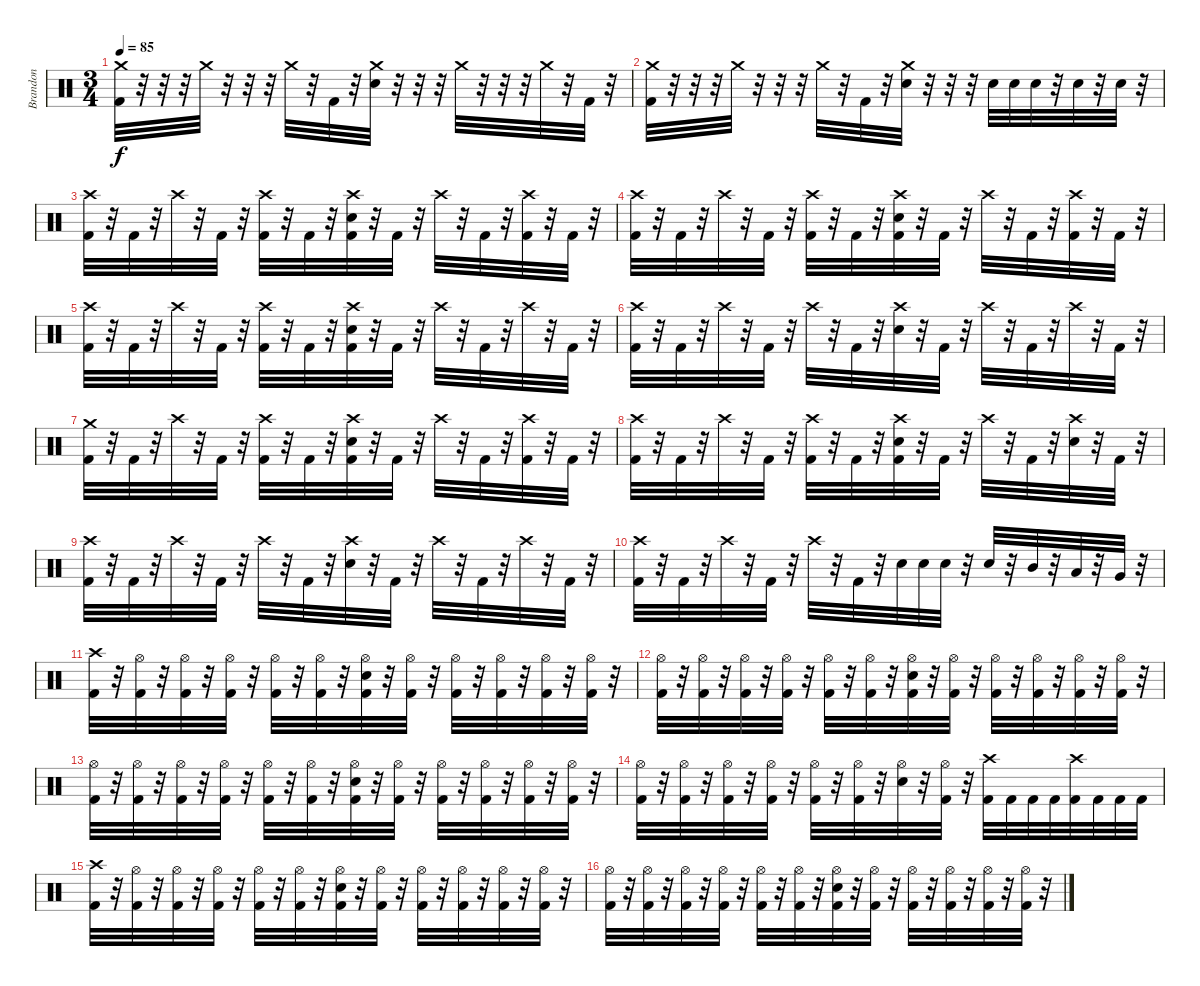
\track ("Brandon" "Brandon") {instrument percussion}
\staff {score}
\articulation defaults
\ts (3 4)
\tempo 85
\clef neutral
\ks c
("Crash medium (hit)" "Kick (hit) 2").32{dy f} r.32 r.32 r.32 "Crash medium (hit)".32 r.32 r.32 r.32 "Crash medium (hit)".32 r.32 "Kick (hit) 2".32 r.32 ("Crash medium (hit)" "Electric Snare (hit)").32 r.32 r.32 r.32 "Crash medium (hit)".32 r.32 r.32 r.32 "Crash medium (hit)".32 r.32 "Kick (hit) 2".32 r.32 |
("Crash medium (hit)" "Kick (hit) 2").32 r.32 r.32 r.32 "Crash medium (hit)".32 r.32 r.32 r.32 "Crash medium (hit)".32 r.32 "Kick (hit) 2".32 r.32 ("Crash medium (hit)" "Electric Snare (hit)").32 r.32 r.32 r.32 "Electric Snare (hit)".32 "Electric Snare (hit)".32 "Electric Snare (hit)".32 r.32 "Electric Snare (hit)".32 r.32 "Electric Snare (hit)".32 r.32 |
("Crash high (hit)" "Kick (hit) 2").32 r.32 "Kick (hit) 2".32 r.32 "Crash high (hit)".32 r.32 "Kick (hit) 2".32 r.32 ("Crash high (hit)" "Kick (hit) 2").32 r.32 "Kick (hit) 2".32 r.32 ("Crash high (hit)" "Electric Snare (hit)" "Kick (hit) 2").32 r.32 "Kick (hit) 2".32 r.32 "Crash high (hit)".32 r.32 "Kick (hit) 2".32 r.32 ("Crash high (hit)" "Kick (hit) 2").32 r.32 "Kick (hit) 2".32 r.32 |
("Crash high (hit)" "Kick (hit) 2").32 r.32 "Kick (hit) 2".32 r.32 "Crash high (hit)".32 r.32 "Kick (hit) 2".32 r.32 ("Crash high (hit)" "Kick (hit) 2").32 r.32 "Kick (hit) 2".32 r.32 ("Crash high (hit)" "Electric Snare (hit)" "Kick (hit) 2").32 r.32 "Kick (hit) 2".32 r.32 "Crash high (hit)".32 r.32 "Kick (hit) 2".32 r.32 ("Crash high (hit)" "Kick (hit) 2").32 r.32 "Kick (hit) 2".32 r.32 |
("Crash high (hit)" "Kick (hit) 2").32 r.32 "Kick (hit) 2".32 r.32 "Crash high (hit)".32 r.32 "Kick (hit) 2".32 r.32 ("Crash high (hit)" "Kick (hit) 2").32 r.32 "Kick (hit) 2".32 r.32 ("Crash high (hit)" "Electric Snare (hit)" "Kick (hit) 2").32 r.32 "Kick (hit) 2".32 r.32 "Crash high (hit)".32 r.32 "Kick (hit) 2".32 r.32 "Crash high (hit)".32 r.32 "Kick (hit) 2".32 r.32 |
("Crash high (hit)" "Kick (hit) 2").32 r.32 "Kick (hit) 2".32 r.32 "Crash high (hit)".32 r.32 "Kick (hit) 2".32 r.32 "Crash high (hit)".32 r.32 "Kick (hit) 2".32 r.32 ("Crash high (hit)" "Electric Snare (hit)").32 r.32 "Kick (hit) 2".32 r.32 "Crash high (hit)".32 r.32 "Kick (hit) 2".32 r.32 "Crash high (hit)".32 r.32 "Kick (hit) 2".32 r.32 |
("Crash medium (hit)" "Kick (hit) 2").32 r.32 "Kick (hit) 2".32 r.32 "Crash high (hit)".32 r.32 "Kick (hit) 2".32 r.32 ("Crash high (hit)" "Kick (hit) 2").32 r.32 "Kick (hit) 2".32 r.32 ("Crash high (hit)" "Electric Snare (hit)" "Kick (hit) 2").32 r.32 "Kick (hit) 2".32 r.32 "Crash high (hit)".32 r.32 "Kick (hit) 2".32 r.32 ("Crash high (hit)" "Kick (hit) 2").32 r.32 "Kick (hit) 2".32 r.32 |
("Crash high (hit)" "Kick (hit) 2").32 r.32 "Kick (hit) 2".32 r.32 "Crash high (hit)".32 r.32 "Kick (hit) 2".32 r.32 ("Crash high (hit)" "Kick (hit) 2").32 r.32 "Kick (hit) 2".32 r.32 ("Crash high (hit)" "Electric Snare (hit)" "Kick (hit) 2").32 r.32 "Kick (hit) 2".32 r.32 "Crash high (hit)".32 r.32 "Kick (hit) 2".32 r.32 ("Crash high (hit)" "Electric Snare (hit)").32 r.32 "Kick (hit) 2".32 r.32 |
("Crash high (hit)" "Kick (hit) 2").32 r.32 "Kick (hit) 2".32 r.32 "Crash high (hit)".32 r.32 "Kick (hit) 2".32 r.32 "Crash high (hit)".32 r.32 "Kick (hit) 2".32 r.32 ("Crash high (hit)" "Electric Snare (hit)").32 r.32 "Kick (hit) 2".32 r.32 "Crash high (hit)".32 r.32 "Kick (hit) 2".32 r.32 "Crash high (hit)".32 r.32 "Kick (hit) 2".32 r.32 |
("Crash high (hit)" "Kick (hit) 2").32 r.32 "Kick (hit) 2".32 r.32 "Crash high (hit)".32 r.32 "Kick (hit) 2".32 r.32 "Crash high (hit)".32 r.32 "Kick (hit) 2".32 r.32 "Electric Snare (hit)".32 "Electric Snare (hit)".32 "Electric Snare (hit)".32 r.32 "Electric Snare (hit)".32 r.32 "Mid Tom (hit)".32 r.32 "Low Tom (hit)".32 r.32 "Very Low Tom (hit)".32 r.32 |
("Crash high (hit)" "Kick (hit) 2").32 r.32 ("Hi-Hat (open)" "Kick (hit) 2").32 r.32 ("Hi-Hat (open)" "Kick (hit) 2").32 r.32 ("Hi-Hat (open)" "Kick (hit) 2").32 r.32 ("Hi-Hat (open)" "Kick (hit) 2").32 r.32 ("Hi-Hat (open)" "Kick (hit) 2").32 r.32 ("Hi-Hat (open)" "Electric Snare (hit)" "Kick (hit) 2").32 r.32 ("Hi-Hat (open)" "Kick (hit) 2").32 r.32 ("Hi-Hat (open)" "Kick (hit) 2").32 r.32 ("Hi-Hat (open)" "Kick (hit) 2").32 r.32 ("Hi-Hat (open)" "Kick (hit) 2").32 r.32 ("Hi-Hat (open)" "Kick (hit) 2").32 r.32 |
("Hi-Hat (open)" "Kick (hit) 2").32 r.32 ("Hi-Hat (open)" "Kick (hit) 2").32 r.32 ("Hi-Hat (open)" "Kick (hit) 2").32 r.32 ("Hi-Hat (open)" "Kick (hit) 2").32 r.32 ("Hi-Hat (open)" "Kick (hit) 2").32 r.32 ("Hi-Hat (open)" "Kick (hit) 2").32 r.32 ("Hi-Hat (open)" "Electric Snare (hit)" "Kick (hit) 2").32 r.32 ("Hi-Hat (open)" "Kick (hit) 2").32 r.32 ("Hi-Hat (open)" "Kick (hit) 2").32 r.32 ("Hi-Hat (open)" "Kick (hit) 2").32 r.32 ("Hi-Hat (open)" "Kick (hit) 2").32 r.32 ("Hi-Hat (open)" "Kick (hit) 2").32 r.32 |
("Hi-Hat (open)" "Kick (hit) 2").32 r.32 ("Hi-Hat (open)" "Kick (hit) 2").32 r.32 ("Hi-Hat (open)" "Kick (hit) 2").32 r.32 ("Hi-Hat (open)" "Kick (hit) 2").32 r.32 ("Hi-Hat (open)" "Kick (hit) 2").32 r.32 ("Hi-Hat (open)" "Kick (hit) 2").32 r.32 ("Hi-Hat (open)" "Electric Snare (hit)" "Kick (hit) 2").32 r.32 ("Hi-Hat (open)" "Kick (hit) 2").32 r.32 ("Hi-Hat (open)" "Kick (hit) 2").32 r.32 ("Hi-Hat (open)" "Kick (hit) 2").32 r.32 ("Hi-Hat (open)" "Kick (hit) 2").32 r.32 ("Hi-Hat (open)" "Kick (hit) 2").32 r.32 |
("Hi-Hat (open)" "Kick (hit) 2").32 r.32 ("Hi-Hat (open)" "Kick (hit) 2").32 r.32 ("Hi-Hat (open)" "Kick (hit) 2").32 r.32 ("Hi-Hat (open)" "Kick (hit) 2").32 r.32 ("Hi-Hat (open)" "Kick (hit) 2").32 r.32 ("Hi-Hat (open)" "Kick (hit) 2").32 r.32 ("Hi-Hat (open)" "Electric Snare (hit)").32 r.32 ("Hi-Hat (open)" "Kick (hit) 2").32 r.32 ("Crash high (hit)" "Kick (hit) 2").32 "Kick (hit) 2".32 "Kick (hit) 2".32 "Kick (hit) 2".32 ("Crash high (hit)" "Kick (hit) 2").32 "Kick (hit) 2".32 "Kick (hit) 2".32 "Kick (hit) 2".32 |
("Crash high (hit)" "Kick (hit) 2").32 r.32 ("Hi-Hat (open)" "Kick (hit) 2").32 r.32 ("Hi-Hat (open)" "Kick (hit) 2").32 r.32 ("Hi-Hat (open)" "Kick (hit) 2").32 r.32 ("Hi-Hat (open)" "Kick (hit) 2").32 r.32 ("Hi-Hat (open)" "Kick (hit) 2").32 r.32 ("Hi-Hat (open)" "Electric Snare (hit)" "Kick (hit) 2").32 r.32 ("Hi-Hat (open)" "Kick (hit) 2").32 r.32 ("Hi-Hat (open)" "Kick (hit) 2").32 r.32 ("Hi-Hat (open)" "Kick (hit) 2").32 r.32 ("Hi-Hat (open)" "Kick (hit) 2").32 r.32 ("Hi-Hat (open)" "Kick (hit) 2").32 r.32 |
("Hi-Hat (open)" "Kick (hit) 2").32 r.32 ("Hi-Hat (open)" "Kick (hit) 2").32 r.32 ("Hi-Hat (open)" "Kick (hit) 2").32 r.32 ("Hi-Hat (open)" "Kick (hit) 2").32 r.32 ("Hi-Hat (open)" "Kick (hit) 2").32 r.32 ("Hi-Hat (open)" "Kick (hit) 2").32 r.32 ("Hi-Hat (open)" "Electric Snare (hit)" "Kick (hit) 2").32 r.32 ("Hi-Hat (open)" "Kick (hit) 2").32 r.32 ("Hi-Hat (open)" "Kick (hit) 2").32 r.32 ("Hi-Hat (open)" "Kick (hit) 2").32 r.32 ("Hi-Hat (open)" "Kick (hit) 2").32 r.32 ("Hi-Hat (open)" "Kick (hit) 2").32 r.32
